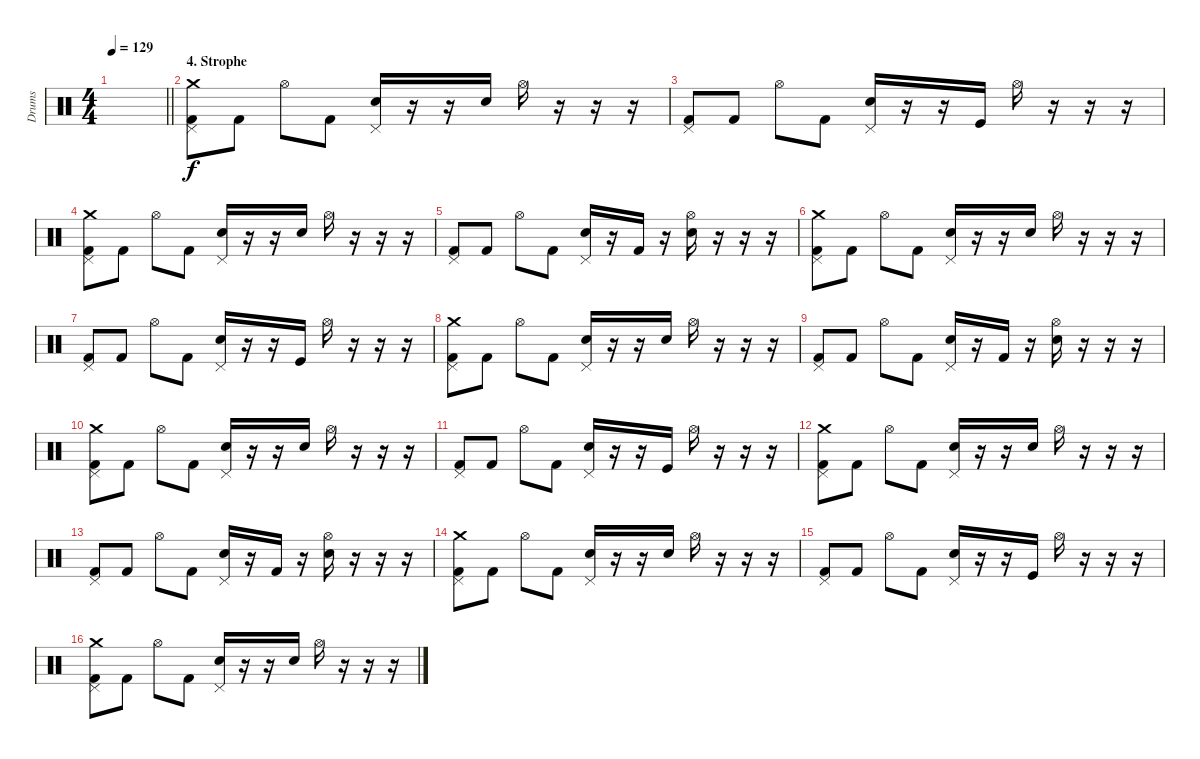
\track ("Drums" "Drums") {instrument percussion}
\staff {score}
\articulation defaults
\ts (4 4)
\tempo 129
\clef neutral
\barLineRight lightlight
\ks c
|
\section ("" "4. Strophe")
("Crash medium (hit)" "Pedal Hi-Hat (hit)" "Kick (hit) 2").8 "Kick (hit) 2".8 "Hi-Hat (open)".8 "Kick (hit) 2".8 ("Pedal Hi-Hat (hit)" "Electric Snare (hit)").16 r.16 r.16 "Electric Snare (hit)".16 "Hi-Hat (open)".16 r.16 r.16 r.16 |
("Pedal Hi-Hat (hit)" "Kick (hit) 2").8 "Kick (hit) 2".8 "Hi-Hat (open)".8 "Kick (hit) 2".8 ("Pedal Hi-Hat (hit)" "Electric Snare (hit)").16 r.16 r.16 "Kick (hit)".16 "Hi-Hat (open)".16 r.16 r.16 r.16 |
("Crash medium (hit)" "Pedal Hi-Hat (hit)" "Kick (hit) 2").8 "Kick (hit) 2".8 "Hi-Hat (open)".8 "Kick (hit) 2".8 ("Pedal Hi-Hat (hit)" "Electric Snare (hit)").16 r.16 r.16 "Electric Snare (hit)".16 "Hi-Hat (open)".16 r.16 r.16 r.16 |
("Pedal Hi-Hat (hit)" "Kick (hit) 2").8 "Kick (hit) 2".8 "Hi-Hat (open)".8 "Kick (hit) 2".8 ("Pedal Hi-Hat (hit)" "Electric Snare (hit)").16 r.16 "Kick (hit) 2".16 r.16 ("Hi-Hat (open)" "Electric Snare (hit)").16 r.16 r.16 r.16 |
("Crash medium (hit)" "Pedal Hi-Hat (hit)" "Kick (hit) 2").8 "Kick (hit) 2".8 "Hi-Hat (open)".8 "Kick (hit) 2".8 ("Pedal Hi-Hat (hit)" "Electric Snare (hit)").16 r.16 r.16 "Electric Snare (hit)".16 "Hi-Hat (open)".16 r.16 r.16 r.16 |
("Pedal Hi-Hat (hit)" "Kick (hit) 2").8 "Kick (hit) 2".8 "Hi-Hat (open)".8 "Kick (hit) 2".8 ("Pedal Hi-Hat (hit)" "Electric Snare (hit)").16 r.16 r.16 "Kick (hit)".16 "Hi-Hat (open)".16 r.16 r.16 r.16 |
("Crash medium (hit)" "Pedal Hi-Hat (hit)" "Kick (hit) 2").8 "Kick (hit) 2".8 "Hi-Hat (open)".8 "Kick (hit) 2".8 ("Pedal Hi-Hat (hit)" "Electric Snare (hit)").16 r.16 r.16 "Electric Snare (hit)".16 "Hi-Hat (open)".16 r.16 r.16 r.16 |
("Pedal Hi-Hat (hit)" "Kick (hit) 2").8 "Kick (hit) 2".8 "Hi-Hat (open)".8 "Kick (hit) 2".8 ("Pedal Hi-Hat (hit)" "Electric Snare (hit)").16 r.16 "Kick (hit) 2".16 r.16 ("Hi-Hat (open)" "Electric Snare (hit)").16 r.16 r.16 r.16 |
("Crash medium (hit)" "Pedal Hi-Hat (hit)" "Kick (hit) 2").8 "Kick (hit) 2".8 "Hi-Hat (open)".8 "Kick (hit) 2".8 ("Pedal Hi-Hat (hit)" "Electric Snare (hit)").16 r.16 r.16 "Electric Snare (hit)".16 "Hi-Hat (open)".16 r.16 r.16 r.16 |
("Pedal Hi-Hat (hit)" "Kick (hit) 2").8 "Kick (hit) 2".8 "Hi-Hat (open)".8 "Kick (hit) 2".8 ("Pedal Hi-Hat (hit)" "Electric Snare (hit)").16 r.16 r.16 "Kick (hit)".16 "Hi-Hat (open)".16 r.16 r.16 r.16 |
("Crash medium (hit)" "Pedal Hi-Hat (hit)" "Kick (hit) 2").8 "Kick (hit) 2".8 "Hi-Hat (open)".8 "Kick (hit) 2".8 ("Pedal Hi-Hat (hit)" "Electric Snare (hit)").16 r.16 r.16 "Electric Snare (hit)".16 "Hi-Hat (open)".16 r.16 r.16 r.16 |
("Pedal Hi-Hat (hit)" "Kick (hit) 2").8 "Kick (hit) 2".8 "Hi-Hat (open)".8 "Kick (hit) 2".8 ("Pedal Hi-Hat (hit)" "Electric Snare (hit)").16 r.16 "Kick (hit) 2".16 r.16 ("Hi-Hat (open)" "Electric Snare (hit)").16 r.16 r.16 r.16 |
("Crash medium (hit)" "Pedal Hi-Hat (hit)" "Kick (hit) 2").8 "Kick (hit) 2".8 "Hi-Hat (open)".8 "Kick (hit) 2".8 ("Pedal Hi-Hat (hit)" "Electric Snare (hit)").16 r.16 r.16 "Electric Snare (hit)".16 "Hi-Hat (open)".16 r.16 r.16 r.16 |
("Pedal Hi-Hat (hit)" "Kick (hit) 2").8 "Kick (hit) 2".8 "Hi-Hat (open)".8 "Kick (hit) 2".8 ("Pedal Hi-Hat (hit)" "Electric Snare (hit)").16 r.16 r.16 "Kick (hit)".16 "Hi-Hat (open)".16 r.16 r.16 r.16 |
("Crash medium (hit)" "Pedal Hi-Hat (hit)" "Kick (hit) 2").8 "Kick (hit) 2".8 "Hi-Hat (open)".8 "Kick (hit) 2".8 ("Pedal Hi-Hat (hit)" "Electric Snare (hit)").16 r.16 r.16 "Electric Snare (hit)".16 "Hi-Hat (open)".16 r.16 r.16 r.16
